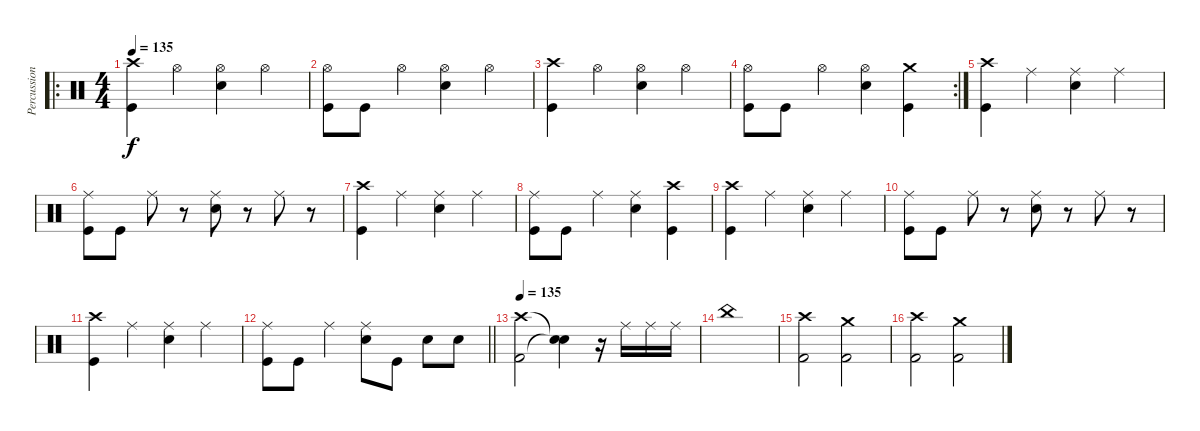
\track ("Percussion" "Percussion") {instrument percussion}
\staff {score}
\articulation defaults
\ro
\ts (4 4)
\tempo 135
\clef neutral
\ks c
("Crash high (hit)" "Kick (hit)").4{dy f} "Hi-Hat (open)".4 ("Hi-Hat (open)" "Electric Snare (hit)").4 "Hi-Hat (open)".4 |
("Hi-Hat (open)" "Kick (hit)").8 "Kick (hit)".8 "Hi-Hat (open)".4 ("Hi-Hat (open)" "Electric Snare (hit)").4 "Hi-Hat (open)".4 |
("Crash high (hit)" "Kick (hit)").4 "Hi-Hat (open)".4 ("Hi-Hat (open)" "Electric Snare (hit)").4 "Hi-Hat (open)".4 |
\rc 2
("Hi-Hat (open)" "Kick (hit)").8 "Kick (hit)".8 "Hi-Hat (open)".4 ("Hi-Hat (open)" "Electric Snare (hit)").4 ("Crash medium (hit)" "Kick (hit)").4 |
("Crash high (hit)" "Kick (hit)").4 "Ride (middle)".4 ("Ride (middle)" "Electric Snare (hit)").4 "Ride (middle)".4 |
("Ride (middle)" "Kick (hit)").8 "Kick (hit)".8 "Ride (middle)".8 r.8 ("Ride (middle)" "Electric Snare (hit)").8 r.8 "Ride (middle)".8 r.8 |
("Crash high (hit)" "Kick (hit)").4 "Ride (middle)".4 ("Ride (middle)" "Electric Snare (hit)").4 "Ride (middle)".4 |
("Ride (middle)" "Kick (hit)").8 "Kick (hit)".8 "Ride (middle)".4 ("Ride (middle)" "Electric Snare (hit)").4 ("Crash high (hit)" "Kick (hit)").4 |
("Crash high (hit)" "Kick (hit)").4 "Ride (middle)".4 ("Ride (middle)" "Electric Snare (hit)").4 "Ride (middle)".4 |
("Ride (middle)" "Kick (hit)").8 "Kick (hit)".8 "Ride (middle)".8 r.8 ("Ride (middle)" "Electric Snare (hit)").8 r.8 "Ride (middle)".8 r.8 |
("Crash high (hit)" "Kick (hit)").4 "Ride (middle)".4 ("Ride (middle)" "Electric Snare (hit)").4 "Ride (middle)".4 |
\barLineRight lightlight
("Ride (middle)" "Kick (hit)").8 "Kick (hit)".8 "Ride (middle)".4 ("Ride (middle)" "Electric Snare (hit)").8 "Kick (hit)".8 "Electric Snare (hit)".8 "Electric Snare (hit)".8 |
\tempo 135
("Crash high (hit)" "Kick (hit) 2").2 ("Snare (hit)"{t} "Snare (hit)"{t}).4 r.16 "Ride (middle)".16 "Ride (middle)".16 "Ride (middle)".16 |
"China (hit)".1 |
("Crash high (hit)" "Kick (hit) 2").2 ("Crash medium (hit)" "Kick (hit) 2").2 |
("Crash high (hit)" "Kick (hit) 2").2 ("Crash medium (hit)" "Kick (hit) 2").2
